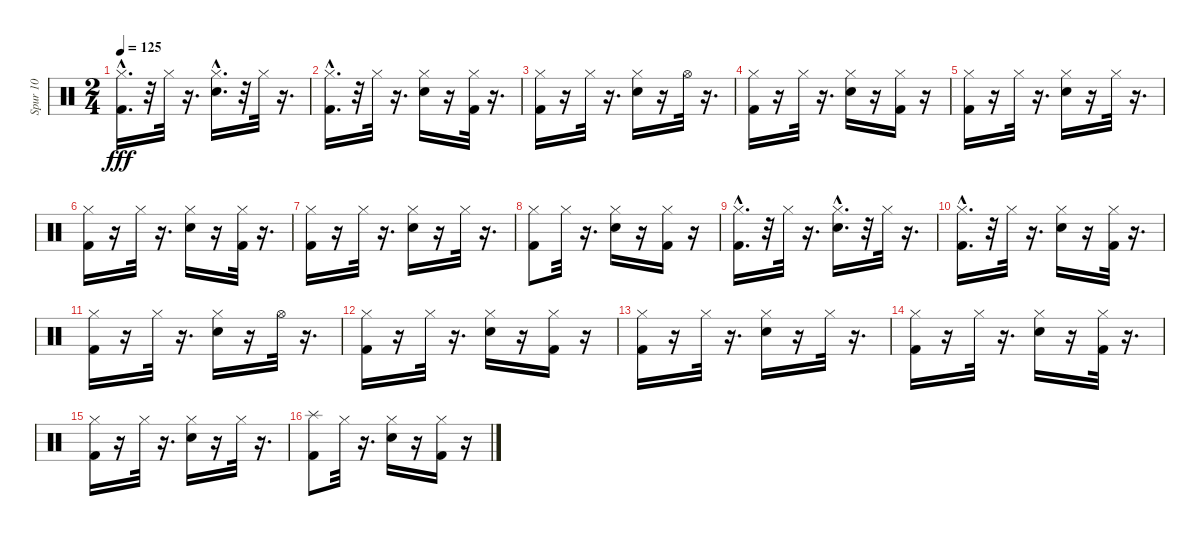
\track ("Spur 10" "Spur 10") {instrument percussion}
\staff {score}
\articulation defaults
\ts (2 4)
\tempo 125
\clef neutral
\ks c
("Kick (hit) 2"{hac} "Hi-Hat (closed)").16{d dy fff} r.32 "Hi-Hat (closed)".32 r.16{d} ("Snare (hit) 2"{hac} "Hi-Hat (closed)").16{d} r.32 "Hi-Hat (closed)".32 r.16{d} |
("Kick (hit) 2"{hac} "Hi-Hat (closed)").16{d} r.32 "Hi-Hat (closed)".32 r.16{d} ("Snare (hit) 2" "Hi-Hat (closed)").16 r.16 ("Kick (hit) 2" "Hi-Hat (closed)").32 r.16{d} |
("Kick (hit) 2" "Hi-Hat (closed)").16 r.16 "Hi-Hat (closed)".32 r.16{d} ("Snare (hit) 2" "Hi-Hat (closed)").16 r.16 "Hi-Hat (open)".32 r.16{d} |
("Kick (hit) 2" "Hi-Hat (closed)").16 r.16 "Hi-Hat (closed)".32 r.16{d} ("Snare (hit) 2" "Hi-Hat (closed)").16 r.16 ("Kick (hit) 2" "Hi-Hat (closed)").16 r.16 |
("Kick (hit) 2" "Hi-Hat (closed)").16 r.16 "Hi-Hat (closed)".32 r.16{d} ("Snare (hit) 2" "Hi-Hat (closed)").16 r.16 "Hi-Hat (closed)".32 r.16{d} |
("Kick (hit) 2" "Hi-Hat (closed)").16 r.16 "Hi-Hat (closed)".32 r.16{d} ("Snare (hit) 2" "Hi-Hat (closed)").16 r.16 ("Kick (hit) 2" "Hi-Hat (closed)").32 r.16{d} |
("Kick (hit) 2" "Hi-Hat (closed)").16 r.16 "Hi-Hat (closed)".32 r.16{d} ("Snare (hit) 2" "Hi-Hat (closed)").16 r.16 "Hi-Hat (closed)".32 r.16{d} |
("Kick (hit) 2" "Hi-Hat (closed)").8 "Hi-Hat (closed)".32 r.16{d} ("Snare (hit) 2" "Hi-Hat (closed)").16 r.16 ("Kick (hit) 2" "Hi-Hat (closed)").16 r.16 |
("Kick (hit) 2"{hac} "Hi-Hat (closed)").16{d} r.32 "Hi-Hat (closed)".32 r.16{d} ("Snare (hit) 2"{hac} "Hi-Hat (closed)").16{d} r.32 "Hi-Hat (closed)".32 r.16{d} |
("Kick (hit) 2"{hac} "Hi-Hat (closed)").16{d} r.32 "Hi-Hat (closed)".32 r.16{d} ("Snare (hit) 2" "Hi-Hat (closed)").16 r.16 ("Kick (hit) 2" "Hi-Hat (closed)").32 r.16{d} |
("Kick (hit) 2" "Hi-Hat (closed)").16 r.16 "Hi-Hat (closed)".32 r.16{d} ("Snare (hit) 2" "Hi-Hat (closed)").16 r.16 "Hi-Hat (open)".32 r.16{d} |
("Kick (hit) 2" "Hi-Hat (closed)").16 r.16 "Hi-Hat (closed)".32 r.16{d} ("Snare (hit) 2" "Hi-Hat (closed)").16 r.16 ("Kick (hit) 2" "Hi-Hat (closed)").16 r.16 |
("Kick (hit) 2" "Hi-Hat (closed)").16 r.16 "Hi-Hat (closed)".32 r.16{d} ("Snare (hit) 2" "Hi-Hat (closed)").16 r.16 "Hi-Hat (closed)".32 r.16{d} |
("Kick (hit) 2" "Hi-Hat (closed)").16 r.16 "Hi-Hat (closed)".32 r.16{d} ("Snare (hit) 2" "Hi-Hat (closed)").16 r.16 ("Kick (hit) 2" "Hi-Hat (closed)").32 r.16{d} |
("Kick (hit) 2" "Hi-Hat (closed)").16 r.16 "Hi-Hat (closed)".32 r.16{d} ("Snare (hit) 2" "Hi-Hat (closed)").16 r.16 "Hi-Hat (closed)".32 r.16{d} |
("Kick (hit) 2" "Splash (hit)").8 "Hi-Hat (closed)".32 r.16{d} ("Snare (hit) 2" "Hi-Hat (closed)").16 r.16 ("Kick (hit) 2" "Hi-Hat (closed)").16 r.16
